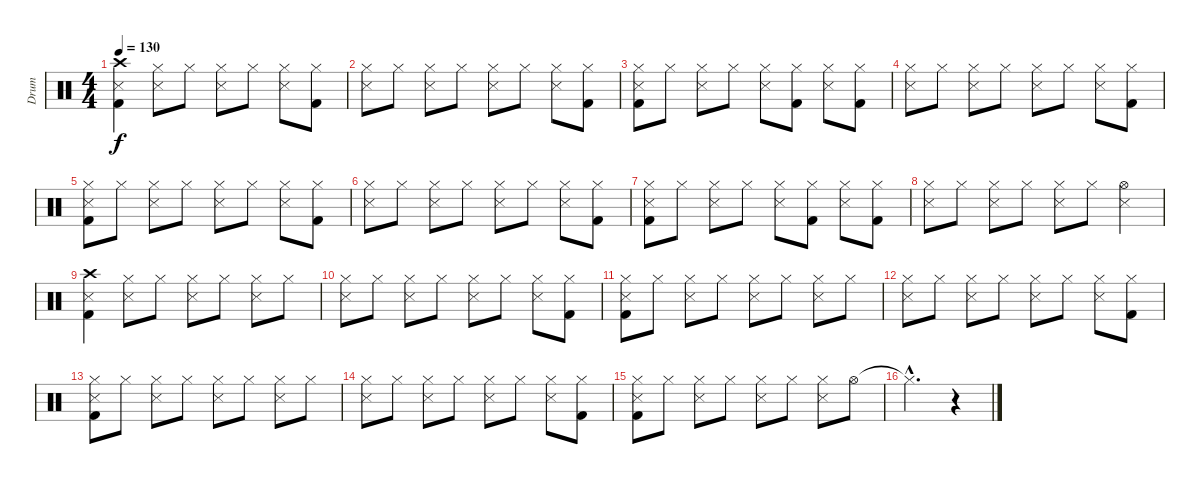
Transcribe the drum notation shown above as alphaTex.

\track ("Drum" "Drum") {instrument percussion}
\staff {score}
\articulation defaults
\ts (4 4)
\tempo 130
\clef neutral
\ks c
("Crash high (hit)" "Snare (side stick) 3" "Kick (hit) 2").4{dy f} ("Hi-Hat (closed)" "Snare (side stick) 3").8 "Hi-Hat (closed)".8 ("Hi-Hat (closed)" "Snare (side stick) 3").8 "Hi-Hat (closed)".8 ("Hi-Hat (closed)" "Snare (side stick) 3").8 ("Hi-Hat (closed)" "Kick (hit) 2").8 |
("Hi-Hat (closed)" "Snare (side stick) 3").8 "Hi-Hat (closed)".8 ("Hi-Hat (closed)" "Snare (side stick) 3").8 "Hi-Hat (closed)".8 ("Hi-Hat (closed)" "Snare (side stick) 3").8 "Hi-Hat (closed)".8 ("Hi-Hat (closed)" "Snare (side stick) 3").8 ("Hi-Hat (closed)" "Kick (hit) 2").8 |
("Hi-Hat (closed)" "Snare (side stick) 3" "Kick (hit) 2").8 "Hi-Hat (closed)".8 ("Hi-Hat (closed)" "Snare (side stick) 3").8 "Hi-Hat (closed)".8 ("Hi-Hat (closed)" "Snare (side stick) 3").8 ("Hi-Hat (closed)" "Kick (hit) 2").8 ("Hi-Hat (closed)" "Snare (side stick) 3").8 ("Hi-Hat (closed)" "Kick (hit) 2").8 |
("Hi-Hat (closed)" "Snare (side stick) 3").8 "Hi-Hat (closed)".8 ("Hi-Hat (closed)" "Snare (side stick) 3").8 "Hi-Hat (closed)".8 ("Hi-Hat (closed)" "Snare (side stick) 3").8 "Hi-Hat (closed)".8 ("Hi-Hat (closed)" "Snare (side stick) 3").8 ("Hi-Hat (closed)" "Kick (hit) 2").8 |
("Hi-Hat (closed)" "Snare (side stick) 3" "Kick (hit) 2").8 "Hi-Hat (closed)".8 ("Hi-Hat (closed)" "Snare (side stick) 3").8 "Hi-Hat (closed)".8 ("Hi-Hat (closed)" "Snare (side stick) 3").8 "Hi-Hat (closed)".8 ("Hi-Hat (closed)" "Snare (side stick) 3").8 ("Hi-Hat (closed)" "Kick (hit) 2").8 |
("Hi-Hat (closed)" "Snare (side stick) 3").8 "Hi-Hat (closed)".8 ("Hi-Hat (closed)" "Snare (side stick) 3").8 "Hi-Hat (closed)".8 ("Hi-Hat (closed)" "Snare (side stick) 3").8 "Hi-Hat (closed)".8 ("Hi-Hat (closed)" "Snare (side stick) 3").8 ("Hi-Hat (closed)" "Kick (hit) 2").8 |
("Hi-Hat (closed)" "Snare (side stick) 3" "Kick (hit) 2").8 "Hi-Hat (closed)".8 ("Hi-Hat (closed)" "Snare (side stick) 3").8 "Hi-Hat (closed)".8 ("Hi-Hat (closed)" "Snare (side stick) 3").8 ("Hi-Hat (closed)" "Kick (hit) 2").8 ("Hi-Hat (closed)" "Snare (side stick) 3").8 ("Hi-Hat (closed)" "Kick (hit) 2").8 |
("Hi-Hat (closed)" "Snare (side stick) 3").8 "Hi-Hat (closed)".8 ("Hi-Hat (closed)" "Snare (side stick) 3").8 "Hi-Hat (closed)".8 ("Hi-Hat (closed)" "Snare (side stick) 3").8 "Hi-Hat (closed)".8 ("Hi-Hat (open)" "Snare (side stick) 3").4 |
("Crash high (hit)" "Snare (side stick) 3" "Kick (hit) 2").4 ("Hi-Hat (closed)" "Snare (side stick) 3").8 "Hi-Hat (closed)".8 ("Hi-Hat (closed)" "Snare (side stick) 3").8 "Hi-Hat (closed)".8 ("Hi-Hat (closed)" "Snare (side stick) 3").8 "Hi-Hat (closed)".8 |
("Hi-Hat (closed)" "Snare (side stick) 3").8 "Hi-Hat (closed)".8 ("Hi-Hat (closed)" "Snare (side stick) 3").8 "Hi-Hat (closed)".8 ("Hi-Hat (closed)" "Snare (side stick) 3").8 "Hi-Hat (closed)".8 ("Hi-Hat (closed)" "Snare (side stick) 3").8 ("Hi-Hat (closed)" "Kick (hit) 2").8 |
("Hi-Hat (closed)" "Snare (side stick) 3" "Kick (hit) 2").8 "Hi-Hat (closed)".8 ("Hi-Hat (closed)" "Snare (side stick) 3").8 "Hi-Hat (closed)".8 ("Hi-Hat (closed)" "Snare (side stick) 3").8 "Hi-Hat (closed)".8 ("Hi-Hat (closed)" "Snare (side stick) 3").8 "Hi-Hat (closed)".8 |
("Hi-Hat (closed)" "Snare (side stick) 3").8 "Hi-Hat (closed)".8 ("Hi-Hat (closed)" "Snare (side stick) 3").8 "Hi-Hat (closed)".8 ("Hi-Hat (closed)" "Snare (side stick) 3").8 "Hi-Hat (closed)".8 ("Hi-Hat (closed)" "Snare (side stick) 3").8 ("Hi-Hat (closed)" "Kick (hit) 2").8 |
("Hi-Hat (closed)" "Snare (side stick) 3" "Kick (hit) 2").8 "Hi-Hat (closed)".8 ("Hi-Hat (closed)" "Snare (side stick) 3").8 "Hi-Hat (closed)".8 ("Hi-Hat (closed)" "Snare (side stick) 3").8 "Hi-Hat (closed)".8 ("Hi-Hat (closed)" "Snare (side stick) 3").8 "Hi-Hat (closed)".8 |
("Hi-Hat (closed)" "Snare (side stick) 3").8 "Hi-Hat (closed)".8 ("Hi-Hat (closed)" "Snare (side stick) 3").8 "Hi-Hat (closed)".8 ("Hi-Hat (closed)" "Snare (side stick) 3").8 "Hi-Hat (closed)".8 ("Hi-Hat (closed)" "Snare (side stick) 3").8 ("Hi-Hat (closed)" "Kick (hit) 2").8 |
("Hi-Hat (closed)" "Snare (side stick) 3" "Kick (hit) 2").8 "Hi-Hat (closed)".8 ("Hi-Hat (closed)" "Snare (side stick) 3").8 "Hi-Hat (closed)".8 ("Hi-Hat (closed)" "Snare (side stick) 3").8 "Hi-Hat (closed)".8 ("Hi-Hat (closed)" "Snare (side stick) 3").8 "Hi-Hat (open)".8 |
"Hi-Hat (closed)"{hac t}.2{d} r.4
